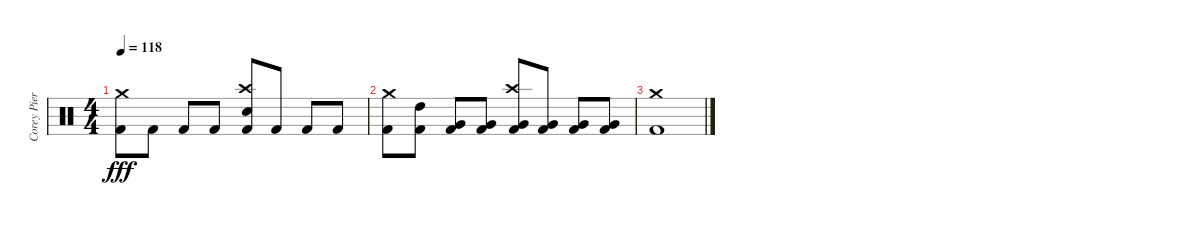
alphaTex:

\track ("Corey Pierce" "Corey Pier") {instrument percussion}
\staff {score}
\articulation defaults
\ts (4 4)
\tempo 118
\clef neutral
\ks c
("Crash medium (hit)" "Kick (hit) 2").8{dy fff} "Kick (hit) 2".8 "Kick (hit) 2".8 "Kick (hit) 2".8 ("Crash high (hit)" "Electric Snare (hit)" "Kick (hit) 2").8 "Kick (hit) 2".8 "Kick (hit) 2".8 "Kick (hit) 2".8 |
("Crash medium (hit)" "Kick (hit) 2").8 ("High Tom (hit)" "Kick (hit) 2").8 ("Very Low Tom (hit)" "Kick (hit) 2").8 ("Very Low Tom (hit)" "Kick (hit) 2").8 ("Crash high (hit)" "Very Low Tom (hit)" "Kick (hit) 2").8 ("Very Low Tom (hit)" "Kick (hit) 2").8 ("Very Low Tom (hit)" "Kick (hit) 2").8 ("Very Low Tom (hit)" "Kick (hit) 2").8 |
("Crash medium (hit)" "Kick (hit) 2").1
